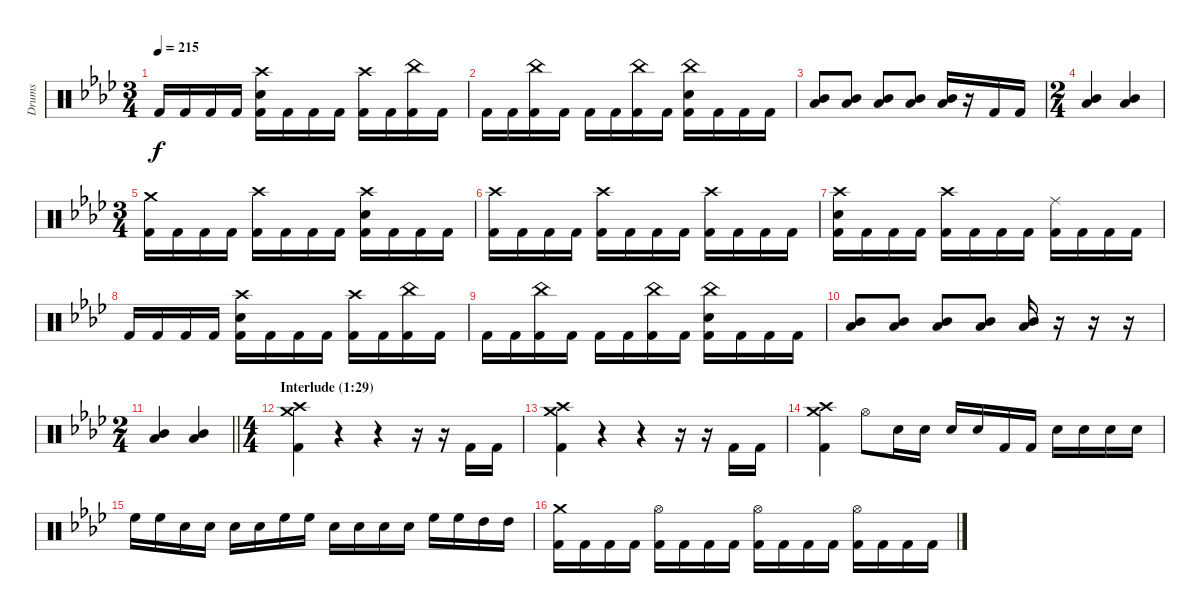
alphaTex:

\bracketExtendMode groupsimilarinstruments
\otherSystemsTrackNameOrientation horizontal
\track ("Guyot Begin-Benoit" "Drums") {instrument percussion}
\staff {score}
\articulation defaults
\ts (3 4)
\tempo 215
\clef neutral
\ks ab "Kick (hit) 2"{acc forcenatural}.16{dy f beam Up} "Kick (hit) 2"{acc forcenatural}.16{beam Up} "Kick (hit) 2"{acc forcenatural}.16{beam Up} "Kick (hit) 2"{acc forcenatural}.16{beam Up}
("Crash high (hit)"{acc forcenatural} "Snare (hit) 2"{acc forcenatural} "Kick (hit) 2"{acc forcenatural}).16{beam Down} "Kick (hit) 2"{acc forcenatural}.16{beam Down} "Kick (hit) 2"{acc forcenatural}.16{beam Down} "Kick (hit) 2"{acc forcenatural}.16{beam Down} ("Crash high (hit)"{acc forcenatural} "Kick (hit) 2"{acc forcenatural}).16{beam Down} "Kick (hit) 2"{acc forcenatural}.16{beam Down} ("China (hit)"{acc forcenatural} "Kick (hit) 2"{acc forcenatural}).16{beam Down} "Kick (hit) 2"{acc forcenatural}.16{beam Down} |
"Kick (hit) 2"{acc forcenatural}.16{beam Down} "Kick (hit) 2"{acc forcenatural}.16{beam Down} ("China (hit)"{acc forcenatural} "Kick (hit) 2"{acc forcenatural}).16{beam Down} "Kick (hit) 2"{acc forcenatural}.16{beam Down} "Kick (hit) 2"{acc forcenatural}.16{beam Down} "Kick (hit) 2"{acc forcenatural}.16{beam Down} ("China (hit)"{acc forcenatural} "Kick (hit) 2"{acc forcenatural}).16{beam Down} "Kick (hit) 2"{acc forcenatural}.16{beam Down} ("China (hit)"{acc forcenatural} "Snare (hit) 2"{acc forcenatural} "Kick (hit) 2"{acc forcenatural}).16{beam Down} "Kick (hit) 2"{acc forcenatural}.16{beam Down} "Kick (hit) 2"{acc forcenatural}.16{beam Down} "Kick (hit) 2"{acc forcenatural}.16{beam Down} |
("Low Tom (hit)"{acc forcenatural} "Mid Tom (hit)"{acc forcenatural}).8{beam Up} ("Low Tom (hit)"{acc forcenatural} "Mid Tom (hit)"{acc forcenatural}).8{beam Up} ("Low Tom (hit)"{acc forcenatural} "Mid Tom (hit)"{acc forcenatural}).8{beam Up} ("Low Tom (hit)"{acc forcenatural} "Mid Tom (hit)"{acc forcenatural}).8{beam Up} ("Low Tom (hit)"{acc forcenatural} "Mid Tom (hit)"{acc forcenatural}).16{beam Up} r.16{beam Up} "Kick (hit) 2"{acc forcenatural}.16{beam Up} "Kick (hit) 2"{acc forcenatural}.16{beam Up} |
\ts (2 4)
\beaming (8 2 2 2 2)
("Low Tom (hit)"{acc forcenatural} "Mid Tom (hit)"{acc forcenatural}).4{beam Up} ("Low Tom (hit)"{acc forcenatural} "Mid Tom (hit)"{acc forcenatural}).4{beam Up} |
\ts (3 4)
\beaming (8 2 2 2 2)
("Crash medium (hit)"{acc forcenatural} "Kick (hit) 2"{acc forcenatural}).16{beam Down} "Kick (hit) 2"{acc forcenatural}.16{beam Down} "Kick (hit) 2"{acc forcenatural}.16{beam Down} "Kick (hit) 2"{acc forcenatural}.16{beam Down} ("Crash high (hit)"{acc forcenatural} "Kick (hit) 2"{acc forcenatural}).16{beam Down} "Kick (hit) 2"{acc forcenatural}.16{beam Down} "Kick (hit) 2"{acc forcenatural}.16{beam Down} "Kick (hit) 2"{acc forcenatural}.16{beam Down} ("Crash high (hit)"{acc forcenatural} "Snare (hit) 2"{acc forcenatural} "Kick (hit) 2"{acc forcenatural}).16{beam Down} "Kick (hit) 2"{acc forcenatural}.16{beam Down} "Kick (hit) 2"{acc forcenatural}.16{beam Down} "Kick (hit) 2"{acc forcenatural}.16{beam Down} |
("Crash high (hit)"{acc forcenatural} "Kick (hit) 2"{acc forcenatural}).16{beam Down} "Kick (hit) 2"{acc forcenatural}.16{beam Down} "Kick (hit) 2"{acc forcenatural}.16{beam Down} "Kick (hit) 2"{acc forcenatural}.16{beam Down} ("Crash high (hit)"{acc forcenatural} "Kick (hit) 2"{acc forcenatural}).16{beam Down} "Kick (hit) 2"{acc forcenatural}.16{beam Down} "Kick (hit) 2"{acc forcenatural}.16{beam Down} "Kick (hit) 2"{acc forcenatural}.16{beam Down} ("Crash high (hit)"{acc forcenatural} "Kick (hit) 2"{acc forcenatural}).16{beam Down} "Kick (hit) 2"{acc forcenatural}.16{beam Down} "Kick (hit) 2"{acc forcenatural}.16{beam Down} "Kick (hit) 2"{acc forcenatural}.16{beam Down} |
("Crash high (hit)"{acc forcenatural} "Snare (hit) 2"{acc forcenatural} "Kick (hit) 2"{acc forcenatural}).16{beam Down} "Kick (hit) 2"{acc forcenatural}.16{beam Down} "Kick (hit) 2"{acc forcenatural}.16{beam Down} "Kick (hit) 2"{acc forcenatural}.16{beam Down} ("Crash high (hit)"{acc forcenatural} "Kick (hit) 2"{acc forcenatural}).16{beam Down} "Kick (hit) 2"{acc forcenatural}.16{beam Down} "Kick (hit) 2"{acc forcenatural}.16{beam Down} "Kick (hit) 2"{acc forcenatural}.16{beam Down} ("Ride (middle)"{acc forcenatural} "Kick (hit) 2"{acc forcenatural}).16{beam Down} "Kick (hit) 2"{acc forcenatural}.16{beam Down} "Kick (hit) 2"{acc forcenatural}.16{beam Down} "Kick (hit) 2"{acc forcenatural}.16{beam Down} |
"Kick (hit) 2"{acc forcenatural}.16{beam Up} "Kick (hit) 2"{acc forcenatural}.16{beam Up} "Kick (hit) 2"{acc forcenatural}.16{beam Up} "Kick (hit) 2"{acc forcenatural}.16{beam Up} ("Crash high (hit)"{acc forcenatural} "Snare (hit) 2"{acc forcenatural} "Kick (hit) 2"{acc forcenatural}).16{beam Down} "Kick (hit) 2"{acc forcenatural}.16{beam Down} "Kick (hit) 2"{acc forcenatural}.16{beam Down} "Kick (hit) 2"{acc forcenatural}.16{beam Down} ("Crash high (hit)"{acc forcenatural} "Kick (hit) 2"{acc forcenatural}).16{beam Down} "Kick (hit) 2"{acc forcenatural}.16{beam Down} ("China (hit)"{acc forcenatural} "Kick (hit) 2"{acc forcenatural}).16{beam Down} "Kick (hit) 2"{acc forcenatural}.16{beam Down} |
"Kick (hit) 2"{acc forcenatural}.16{beam Down} "Kick (hit) 2"{acc forcenatural}.16{beam Down} ("China (hit)"{acc forcenatural} "Kick (hit) 2"{acc forcenatural}).16{beam Down} "Kick (hit) 2"{acc forcenatural}.16{beam Down} "Kick (hit) 2"{acc forcenatural}.16{beam Down} "Kick (hit) 2"{acc forcenatural}.16{beam Down} ("China (hit)"{acc forcenatural} "Kick (hit) 2"{acc forcenatural}).16{beam Down} "Kick (hit) 2"{acc forcenatural}.16{beam Down} ("China (hit)"{acc forcenatural} "Snare (hit) 2"{acc forcenatural} "Kick (hit) 2"{acc forcenatural}).16{beam Down} "Kick (hit) 2"{acc forcenatural}.16{beam Down} "Kick (hit) 2"{acc forcenatural}.16{beam Down} "Kick (hit) 2"{acc forcenatural}.16{beam Down} |
("Low Tom (hit)"{acc forcenatural} "Mid Tom (hit)"{acc forcenatural}).8{beam Up} ("Low Tom (hit)"{acc forcenatural} "Mid Tom (hit)"{acc forcenatural}).8{beam Up} ("Low Tom (hit)"{acc forcenatural} "Mid Tom (hit)"{acc forcenatural}).8{beam Up} ("Low Tom (hit)"{acc forcenatural} "Mid Tom (hit)"{acc forcenatural}).8{beam Up} ("Low Tom (hit)"{acc forcenatural} "Mid Tom (hit)"{acc forcenatural}).16{beam Up} r.16{beam Up} r.16{beam Up} r.16{beam Up} |
\ts (2 4)
\beaming (8 2 2 2 2)
\barLineRight lightlight
("Low Tom (hit)"{acc forcenatural} "Mid Tom (hit)"{acc forcenatural}).4{beam Up} ("Low Tom (hit)"{acc forcenatural} "Mid Tom (hit)"{acc forcenatural}).4{beam Up} |
\ts (4 4)
\beaming (8 2 2 2 2)
\section ("" "Interlude (1:29)")
("Crash medium (hit)"{acc forcenatural} "Crash high (hit)"{acc forcenatural} "Kick (hit) 2"{acc forcenatural}).4{beam Down} r.4{beam Down} r.4{beam Down} r.16{beam Down} r.16{beam Down} "Kick (hit) 2"{acc forcenatural}.16{beam Up} "Kick (hit) 2"{acc forcenatural}.16{beam Up} |
("Crash medium (hit)"{acc forcenatural} "Crash high (hit)"{acc forcenatural} "Kick (hit) 2"{acc forcenatural}).4{beam Down} r.4{beam Down} r.4{beam Down} r.16{beam Down} r.16{beam Down} "Kick (hit) 2"{acc forcenatural}.16{beam Up} "Kick (hit) 2"{acc forcenatural}.16{beam Up} |
("Crash medium (hit)"{acc forcenatural} "Crash high (hit)"{acc forcenatural} "Kick (hit) 2"{acc forcenatural}).4{beam Down} "Hi-Hat (open)"{acc forcenatural}.8{beam Down} "Snare (hit) 2"{acc forcenatural}.16{beam Down} "Snare (hit) 2"{acc forcenatural}.16{beam Down} "Snare (hit) 2"{acc forcenatural}.16{beam Up} "Snare (hit) 2"{acc forcenatural}.16{beam Up} "Kick (hit) 2"{acc forcenatural}.16{beam Up} "Kick (hit) 2"{acc forcenatural}.16{beam Up} "Snare (hit) 2"{acc forcenatural}.16{beam Down} "Snare (hit) 2"{acc forcenatural}.16{beam Down} "Snare (hit) 2"{acc forcenatural}.16{beam Down} "Snare (hit) 2"{acc forcenatural}.16{beam Down} |
"High Floor Tom (hit)"{acc forcenatural}.16{beam Down} "High Floor Tom (hit)"{acc forcenatural}.16{beam Down} "Snare (hit) 2"{acc forcenatural}.16{beam Down} "Snare (hit) 2"{acc forcenatural}.16{beam Down} "Snare (hit) 2"{acc forcenatural}.16{beam Down} "Snare (hit) 2"{acc forcenatural}.16{beam Down} "High Floor Tom (hit)"{acc forcenatural}.16{beam Down} "High Floor Tom (hit)"{acc forcenatural}.16{beam Down} "Snare (hit) 2"{acc forcenatural}.16{beam Down} "Snare (hit) 2"{acc forcenatural}.16{beam Down} "Snare (hit) 2"{acc forcenatural}.16{beam Down} "Snare (hit) 2"{acc forcenatural}.16{beam Down} "High Floor Tom (hit)"{acc forcenatural}.16{beam Down} "High Floor Tom (hit)"{acc forcenatural}.16{beam Down} "High Tom (hit)"{acc forcenatural}.16{beam Down} "High Tom (hit)"{acc forcenatural}.16{beam Down} |
("Crash medium (hit)"{acc forcenatural} "Kick (hit) 2"{acc forcenatural}).16{beam Down} "Kick (hit) 2"{acc forcenatural}.16{beam Down} "Kick (hit) 2"{acc forcenatural}.16{beam Down} "Kick (hit) 2"{acc forcenatural}.16{beam Down} ("Hi-Hat (open)"{acc forcenatural} "Kick (hit) 2"{acc forcenatural}).16{beam Down} "Kick (hit) 2"{acc forcenatural}.16{beam Down} "Kick (hit) 2"{acc forcenatural}.16{beam Down} "Kick (hit) 2"{acc forcenatural}.16{beam Down} ("Hi-Hat (open)"{acc forcenatural} "Kick (hit) 2"{acc forcenatural}).16{beam Down} "Kick (hit) 2"{acc forcenatural}.16{beam Down} "Kick (hit) 2"{acc forcenatural}.16{beam Down} "Kick (hit) 2"{acc forcenatural}.16{beam Down} ("Hi-Hat (open)"{acc forcenatural} "Kick (hit) 2"{acc forcenatural}).16{beam Down} "Kick (hit) 2"{acc forcenatural}.16{beam Down} "Kick (hit) 2"{acc forcenatural}.16{beam Down} "Kick (hit) 2"{acc forcenatural}.16{beam Down}
